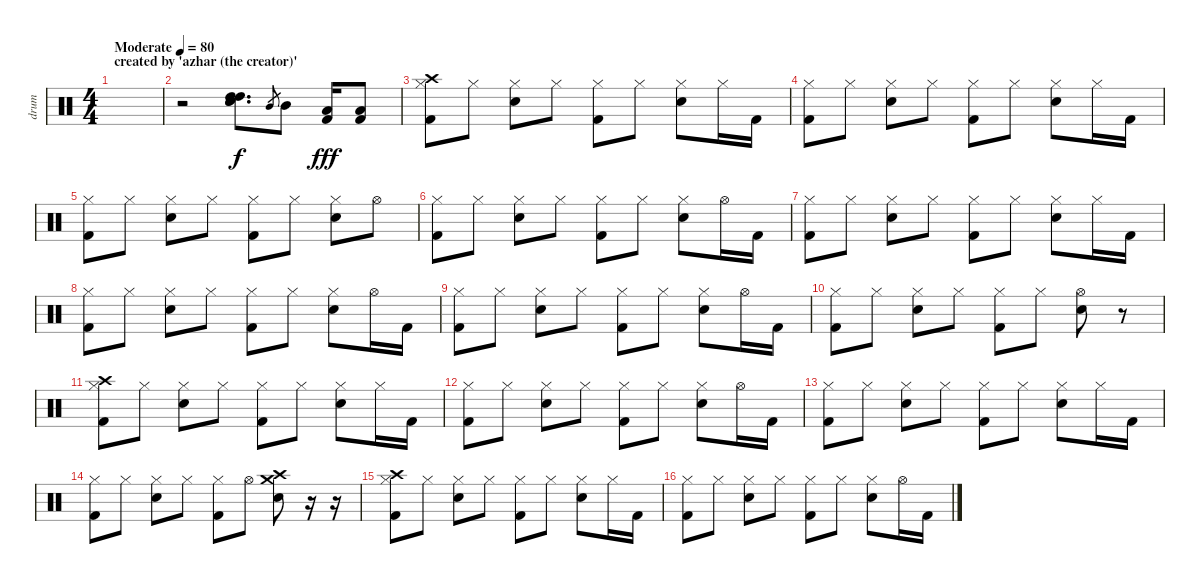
\track ("drum" "drum") {instrument percussion}
\staff {score}
\articulation defaults
\ts (4 4)
\section ("" "created by 'azhar (the creator)'")
\tempo (80 "Moderate")
\clef neutral
\ks c
|
r.2 ("High Tom (hit)" "High Tom (hit)" "Electric Snare (hit)" "Snare (hit) 2").8{d} "Mid Tom (hit)".8{gr dy f} "Mid Tom (hit)".8 ("Low Floor Tom (hit)" "Kick (hit) 2").16{dy fff} ("Low Floor Tom (hit)" "Kick (hit) 2").8 |
("Crash high (hit)" "Hi-Hat (closed)" "Kick (hit) 2").8 "Hi-Hat (closed)".8 ("Hi-Hat (closed)" "Electric Snare (hit)").8 "Hi-Hat (closed)".8 ("Hi-Hat (closed)" "Kick (hit) 2").8 "Hi-Hat (closed)".8 ("Hi-Hat (closed)" "Electric Snare (hit)").8 "Hi-Hat (closed)".16 "Kick (hit) 2".16 |
("Hi-Hat (closed)" "Kick (hit) 2").8 "Hi-Hat (closed)".8 ("Hi-Hat (closed)" "Electric Snare (hit)").8 "Hi-Hat (closed)".8 ("Hi-Hat (closed)" "Kick (hit) 2").8 "Hi-Hat (closed)".8 ("Hi-Hat (closed)" "Electric Snare (hit)").8 "Hi-Hat (closed)".16 "Kick (hit) 2".16 |
("Hi-Hat (closed)" "Kick (hit) 2").8 "Hi-Hat (closed)".8 ("Hi-Hat (closed)" "Electric Snare (hit)").8 "Hi-Hat (closed)".8 ("Hi-Hat (closed)" "Kick (hit) 2").8 "Hi-Hat (closed)".8 ("Hi-Hat (closed)" "Electric Snare (hit)").8 "Hi-Hat (open)".8 |
("Hi-Hat (closed)" "Kick (hit) 2").8 "Hi-Hat (closed)".8 ("Hi-Hat (closed)" "Electric Snare (hit)").8 "Hi-Hat (closed)".8 ("Hi-Hat (closed)" "Kick (hit) 2").8 "Hi-Hat (closed)".8 ("Hi-Hat (closed)" "Electric Snare (hit)").8 "Hi-Hat (open)".16 "Kick (hit) 2".16 |
("Hi-Hat (closed)" "Kick (hit) 2").8 "Hi-Hat (closed)".8 ("Hi-Hat (closed)" "Electric Snare (hit)").8 "Hi-Hat (closed)".8 ("Hi-Hat (closed)" "Kick (hit) 2").8 "Hi-Hat (closed)".8 ("Hi-Hat (closed)" "Electric Snare (hit)").8 "Hi-Hat (closed)".16 "Kick (hit) 2".16 |
("Hi-Hat (closed)" "Kick (hit) 2").8 "Hi-Hat (closed)".8 ("Hi-Hat (closed)" "Electric Snare (hit)").8 "Hi-Hat (closed)".8 ("Hi-Hat (closed)" "Kick (hit) 2").8 "Hi-Hat (closed)".8 ("Hi-Hat (closed)" "Electric Snare (hit)").8 "Hi-Hat (open)".16 "Kick (hit) 2".16 |
("Hi-Hat (closed)" "Kick (hit) 2").8 "Hi-Hat (closed)".8 ("Hi-Hat (closed)" "Electric Snare (hit)").8 "Hi-Hat (closed)".8 ("Hi-Hat (closed)" "Kick (hit) 2").8 "Hi-Hat (closed)".8 ("Hi-Hat (closed)" "Electric Snare (hit)").8 "Hi-Hat (open)".16 "Kick (hit) 2".16 |
("Hi-Hat (closed)" "Kick (hit) 2").8 "Hi-Hat (closed)".8 ("Hi-Hat (closed)" "Electric Snare (hit)").8 "Hi-Hat (closed)".8 ("Hi-Hat (closed)" "Kick (hit) 2").8 "Hi-Hat (closed)".8 ("Hi-Hat (open)" "Electric Snare (hit)").8 r.8 |
("Crash high (hit)" "Hi-Hat (closed)" "Kick (hit) 2").8 "Hi-Hat (closed)".8 ("Hi-Hat (closed)" "Electric Snare (hit)").8 "Hi-Hat (closed)".8 ("Hi-Hat (closed)" "Kick (hit) 2").8 "Hi-Hat (closed)".8 ("Hi-Hat (closed)" "Electric Snare (hit)").8 "Hi-Hat (closed)".16 "Kick (hit) 2".16 |
("Hi-Hat (closed)" "Kick (hit) 2").8 "Hi-Hat (closed)".8 ("Hi-Hat (closed)" "Electric Snare (hit)").8 "Hi-Hat (closed)".8 ("Hi-Hat (closed)" "Kick (hit) 2").8 "Hi-Hat (closed)".8 ("Hi-Hat (closed)" "Electric Snare (hit)").8 "Hi-Hat (open)".16 "Kick (hit) 2".16 |
("Hi-Hat (closed)" "Kick (hit) 2").8 "Hi-Hat (closed)".8 ("Hi-Hat (closed)" "Electric Snare (hit)").8 "Hi-Hat (closed)".8 ("Hi-Hat (closed)" "Kick (hit) 2").8 "Hi-Hat (closed)".8 ("Hi-Hat (closed)" "Electric Snare (hit)").8 "Hi-Hat (closed)".16 "Kick (hit) 2".16 |
("Hi-Hat (closed)" "Kick (hit) 2").8 "Hi-Hat (closed)".8 ("Hi-Hat (closed)" "Electric Snare (hit)").8 "Hi-Hat (closed)".8 ("Hi-Hat (closed)" "Kick (hit) 2").8 "Hi-Hat (open)".8 ("Crash high (hit)" "Crash medium (hit)" "Electric Snare (hit)").8 r.16 r.16 |
("Crash high (hit)" "Hi-Hat (closed)" "Kick (hit) 2").8 "Hi-Hat (closed)".8 ("Hi-Hat (closed)" "Electric Snare (hit)").8 "Hi-Hat (closed)".8 ("Hi-Hat (closed)" "Kick (hit) 2").8 "Hi-Hat (closed)".8 ("Hi-Hat (closed)" "Electric Snare (hit)").8 "Hi-Hat (closed)".16 "Kick (hit) 2".16 |
("Hi-Hat (closed)" "Kick (hit) 2").8 "Hi-Hat (closed)".8 ("Hi-Hat (closed)" "Electric Snare (hit)").8 "Hi-Hat (closed)".8 ("Hi-Hat (closed)" "Kick (hit) 2").8 "Hi-Hat (closed)".8 ("Hi-Hat (closed)" "Electric Snare (hit)").8 "Hi-Hat (open)".16 "Kick (hit) 2".16
